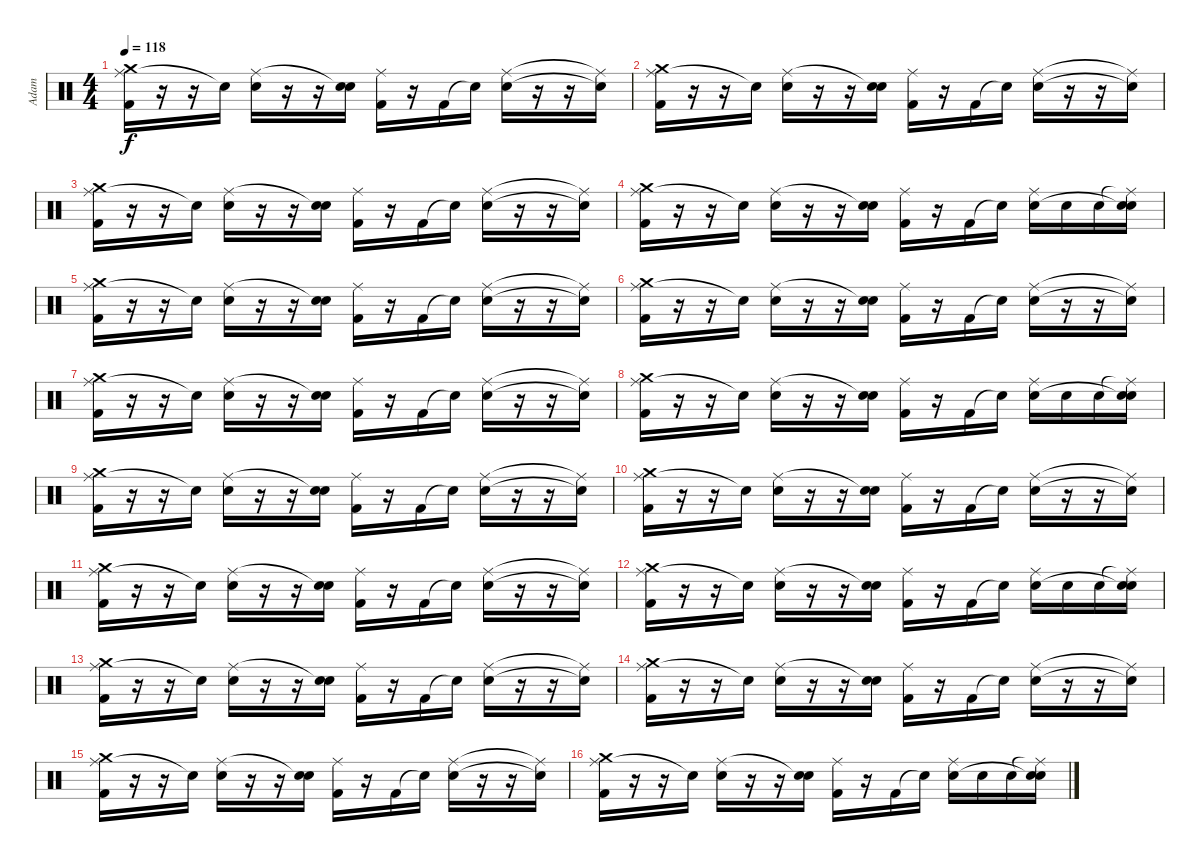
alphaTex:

\track ("Adam" "Adam") {instrument percussion}
\staff {score}
\articulation defaults
\ts (4 4)
\tempo 118
\clef neutral
\ks c
("Ride (middle)" "Crash medium (hit)" "Kick (hit) 2").16{dy f} r.16 r.16 "Snare (hit)"{t}.16 ("Ride (middle)" "Snare (hit) 2").16 r.16 r.16 ("Snare (hit)"{t} "Snare (hit) 2").16 ("Ride (middle)" "Kick (hit) 2").16 r.16 "Kick (hit) 2".16 "Snare (hit)"{t}.16 ("Ride (middle)" "Snare (hit) 2").16 r.16 r.16 ("Ride (middle)"{t} "Snare (hit)"{t}).16 |
("Ride (middle)" "Crash medium (hit)" "Kick (hit) 2").16 r.16 r.16 "Snare (hit)"{t}.16 ("Ride (middle)" "Snare (hit) 2").16 r.16 r.16 ("Snare (hit)"{t} "Snare (hit) 2").16 ("Ride (middle)" "Kick (hit) 2").16 r.16 "Kick (hit) 2".16 "Snare (hit)"{t}.16 ("Ride (middle)" "Snare (hit) 2").16 r.16 r.16 ("Ride (middle)"{t} "Snare (hit)"{t}).16 |
("Ride (middle)" "Crash medium (hit)" "Kick (hit) 2").16 r.16 r.16 "Snare (hit)"{t}.16 ("Ride (middle)" "Snare (hit) 2").16 r.16 r.16 ("Snare (hit)"{t} "Snare (hit) 2").16 ("Ride (middle)" "Kick (hit) 2").16 r.16 "Kick (hit) 2".16 "Snare (hit)"{t}.16 ("Ride (middle)" "Snare (hit) 2").16 r.16 r.16 ("Ride (middle)"{t} "Snare (hit)"{t}).16 |
("Ride (middle)" "Crash medium (hit)" "Kick (hit) 2").16 r.16 r.16 "Snare (hit)"{t}.16 ("Ride (middle)" "Snare (hit) 2").16 r.16 r.16 ("Snare (hit)"{t} "Snare (hit) 2").16 ("Ride (middle)" "Kick (hit) 2").16 r.16 "Kick (hit) 2".16 "Snare (hit)"{t}.16 ("Ride (middle)" "Snare (hit) 2").16 "Snare (hit) 2".16 "Snare (hit) 2".16 ("Ride (middle)"{t} "Snare (hit)"{t} "Snare (hit) 2").16 |
("Ride (middle)" "Crash medium (hit)" "Kick (hit) 2").16 r.16 r.16 "Snare (hit)"{t}.16 ("Ride (middle)" "Snare (hit) 2").16 r.16 r.16 ("Snare (hit)"{t} "Snare (hit) 2").16 ("Ride (middle)" "Kick (hit) 2").16 r.16 "Kick (hit) 2".16 "Snare (hit)"{t}.16 ("Ride (middle)" "Snare (hit) 2").16 r.16 r.16 ("Ride (middle)"{t} "Snare (hit)"{t}).16 |
("Ride (middle)" "Crash medium (hit)" "Kick (hit) 2").16 r.16 r.16 "Snare (hit)"{t}.16 ("Ride (middle)" "Snare (hit) 2").16 r.16 r.16 ("Snare (hit)"{t} "Snare (hit) 2").16 ("Ride (middle)" "Kick (hit) 2").16 r.16 "Kick (hit) 2".16 "Snare (hit)"{t}.16 ("Ride (middle)" "Snare (hit) 2").16 r.16 r.16 ("Ride (middle)"{t} "Snare (hit)"{t}).16 |
("Ride (middle)" "Crash medium (hit)" "Kick (hit) 2").16 r.16 r.16 "Snare (hit)"{t}.16 ("Ride (middle)" "Snare (hit) 2").16 r.16 r.16 ("Snare (hit)"{t} "Snare (hit) 2").16 ("Ride (middle)" "Kick (hit) 2").16 r.16 "Kick (hit) 2".16 "Snare (hit)"{t}.16 ("Ride (middle)" "Snare (hit) 2").16 r.16 r.16 ("Ride (middle)"{t} "Snare (hit)"{t}).16 |
("Ride (middle)" "Crash medium (hit)" "Kick (hit) 2").16 r.16 r.16 "Snare (hit)"{t}.16 ("Ride (middle)" "Snare (hit) 2").16 r.16 r.16 ("Snare (hit)"{t} "Snare (hit) 2").16 ("Ride (middle)" "Kick (hit) 2").16 r.16 "Kick (hit) 2".16 "Snare (hit)"{t}.16 ("Ride (middle)" "Snare (hit) 2").16 "Snare (hit) 2".16 "Snare (hit) 2".16 ("Ride (middle)"{t} "Snare (hit)"{t} "Snare (hit) 2").16 |
("Ride (middle)" "Crash medium (hit)" "Kick (hit) 2").16 r.16 r.16 "Snare (hit)"{t}.16 ("Ride (middle)" "Snare (hit) 2").16 r.16 r.16 ("Snare (hit)"{t} "Snare (hit) 2").16 ("Ride (middle)" "Kick (hit) 2").16 r.16 "Kick (hit) 2".16 "Snare (hit)"{t}.16 ("Ride (middle)" "Snare (hit) 2").16 r.16 r.16 ("Ride (middle)"{t} "Snare (hit)"{t}).16 |
("Ride (middle)" "Crash medium (hit)" "Kick (hit) 2").16 r.16 r.16 "Snare (hit)"{t}.16 ("Ride (middle)" "Snare (hit) 2").16 r.16 r.16 ("Snare (hit)"{t} "Snare (hit) 2").16 ("Ride (middle)" "Kick (hit) 2").16 r.16 "Kick (hit) 2".16 "Snare (hit)"{t}.16 ("Ride (middle)" "Snare (hit) 2").16 r.16 r.16 ("Ride (middle)"{t} "Snare (hit)"{t}).16 |
("Ride (middle)" "Crash medium (hit)" "Kick (hit) 2").16 r.16 r.16 "Snare (hit)"{t}.16 ("Ride (middle)" "Snare (hit) 2").16 r.16 r.16 ("Snare (hit)"{t} "Snare (hit) 2").16 ("Ride (middle)" "Kick (hit) 2").16 r.16 "Kick (hit) 2".16 "Snare (hit)"{t}.16 ("Ride (middle)" "Snare (hit) 2").16 r.16 r.16 ("Ride (middle)"{t} "Snare (hit)"{t}).16 |
("Ride (middle)" "Crash medium (hit)" "Kick (hit) 2").16 r.16 r.16 "Snare (hit)"{t}.16 ("Ride (middle)" "Snare (hit) 2").16 r.16 r.16 ("Snare (hit)"{t} "Snare (hit) 2").16 ("Ride (middle)" "Kick (hit) 2").16 r.16 "Kick (hit) 2".16 "Snare (hit)"{t}.16 ("Ride (middle)" "Snare (hit) 2").16 "Snare (hit) 2".16 "Snare (hit) 2".16 ("Ride (middle)"{t} "Snare (hit)"{t} "Snare (hit) 2").16 |
("Ride (middle)" "Crash medium (hit)" "Kick (hit) 2").16 r.16 r.16 "Snare (hit)"{t}.16 ("Ride (middle)" "Snare (hit) 2").16 r.16 r.16 ("Snare (hit)"{t} "Snare (hit) 2").16 ("Ride (middle)" "Kick (hit) 2").16 r.16 "Kick (hit) 2".16 "Snare (hit)"{t}.16 ("Ride (middle)" "Snare (hit) 2").16 r.16 r.16 ("Ride (middle)"{t} "Snare (hit)"{t}).16 |
("Ride (middle)" "Crash medium (hit)" "Kick (hit) 2").16 r.16 r.16 "Snare (hit)"{t}.16 ("Ride (middle)" "Snare (hit) 2").16 r.16 r.16 ("Snare (hit)"{t} "Snare (hit) 2").16 ("Ride (middle)" "Kick (hit) 2").16 r.16 "Kick (hit) 2".16 "Snare (hit)"{t}.16 ("Ride (middle)" "Snare (hit) 2").16 r.16 r.16 ("Ride (middle)"{t} "Snare (hit)"{t}).16 |
("Ride (middle)" "Crash medium (hit)" "Kick (hit) 2").16 r.16 r.16 "Snare (hit)"{t}.16 ("Ride (middle)" "Snare (hit) 2").16 r.16 r.16 ("Snare (hit)"{t} "Snare (hit) 2").16 ("Ride (middle)" "Kick (hit) 2").16 r.16 "Kick (hit) 2".16 "Snare (hit)"{t}.16 ("Ride (middle)" "Snare (hit) 2").16 r.16 r.16 ("Ride (middle)"{t} "Snare (hit)"{t}).16 |
("Ride (middle)" "Crash medium (hit)" "Kick (hit) 2").16 r.16 r.16 "Snare (hit)"{t}.16 ("Ride (middle)" "Snare (hit) 2").16 r.16 r.16 ("Snare (hit)"{t} "Snare (hit) 2").16 ("Ride (middle)" "Kick (hit) 2").16 r.16 "Kick (hit) 2".16 "Snare (hit)"{t}.16 ("Ride (middle)" "Snare (hit) 2").16 "Snare (hit) 2".16 "Snare (hit) 2".16 ("Ride (middle)"{t} "Snare (hit)"{t} "Snare (hit) 2").16
